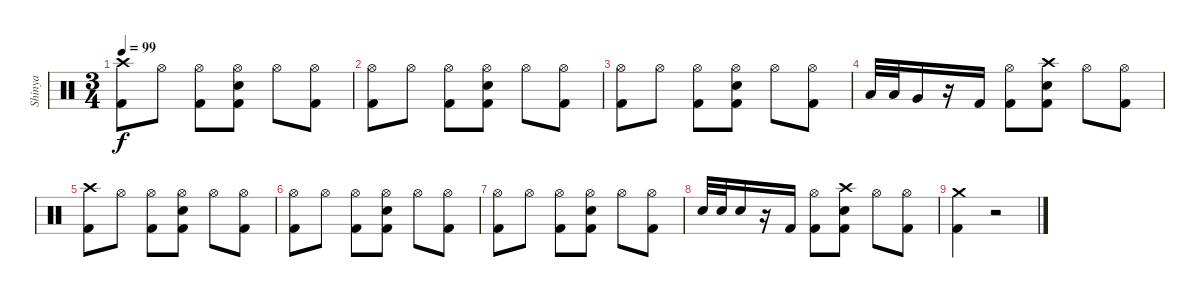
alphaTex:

\track ("Shinya" "Shinya") {instrument percussion}
\staff {score}
\articulation defaults
\ts (3 4)
\tempo 99
\clef neutral
\ks c
("Crash high (hit)" "Kick (hit) 2").8{dy f} "Hi-Hat (open)".8 ("Hi-Hat (open)" "Kick (hit) 2").8 ("Hi-Hat (open)" "Snare (hit) 2" "Kick (hit) 2").8 "Hi-Hat (open)".8 ("Hi-Hat (open)" "Kick (hit) 2").8 |
("Hi-Hat (open)" "Kick (hit) 2").8 "Hi-Hat (open)".8 ("Hi-Hat (open)" "Kick (hit) 2").8 ("Hi-Hat (open)" "Snare (hit) 2" "Kick (hit) 2").8 "Hi-Hat (open)".8 ("Hi-Hat (open)" "Kick (hit) 2").8 |
("Hi-Hat (open)" "Kick (hit) 2").8 "Hi-Hat (open)".8 ("Hi-Hat (open)" "Kick (hit) 2").8 ("Hi-Hat (open)" "Snare (hit) 2" "Kick (hit) 2").8 "Hi-Hat (open)".8 ("Hi-Hat (open)" "Kick (hit) 2").8 |
"Low Tom (hit)".32 "Low Tom (hit)".32 "Very Low Tom (hit)".16 r.16 "Kick (hit) 2".16 ("Hi-Hat (open)" "Kick (hit) 2").8 ("Crash high (hit)" "Snare (hit) 2" "Kick (hit) 2").8 "Hi-Hat (open)".8 ("Hi-Hat (open)" "Kick (hit) 2").8 |
("Crash high (hit)" "Kick (hit) 2").8 "Hi-Hat (open)".8 ("Hi-Hat (open)" "Kick (hit) 2").8 ("Hi-Hat (open)" "Snare (hit) 2" "Kick (hit) 2").8 "Hi-Hat (open)".8 ("Hi-Hat (open)" "Kick (hit) 2").8 |
("Hi-Hat (open)" "Kick (hit) 2").8 "Hi-Hat (open)".8 ("Hi-Hat (open)" "Kick (hit) 2").8 ("Hi-Hat (open)" "Snare (hit) 2" "Kick (hit) 2").8 "Hi-Hat (open)".8 ("Hi-Hat (open)" "Kick (hit) 2").8 |
("Hi-Hat (open)" "Kick (hit) 2").8 "Hi-Hat (open)".8 ("Hi-Hat (open)" "Kick (hit) 2").8 ("Hi-Hat (open)" "Snare (hit) 2" "Kick (hit) 2").8 "Hi-Hat (open)".8 ("Hi-Hat (open)" "Kick (hit) 2").8 |
"Snare (hit) 2".32 "Snare (hit) 2".32 "Snare (hit) 2".16 r.16 "Kick (hit) 2".16 ("Hi-Hat (open)" "Kick (hit) 2").8 ("Crash high (hit)" "Snare (hit) 2" "Kick (hit) 2").8 "Hi-Hat (open)".8 ("Hi-Hat (open)" "Kick (hit) 2").8 |
("Crash medium (hit)" "Kick (hit) 2").4 r.2
